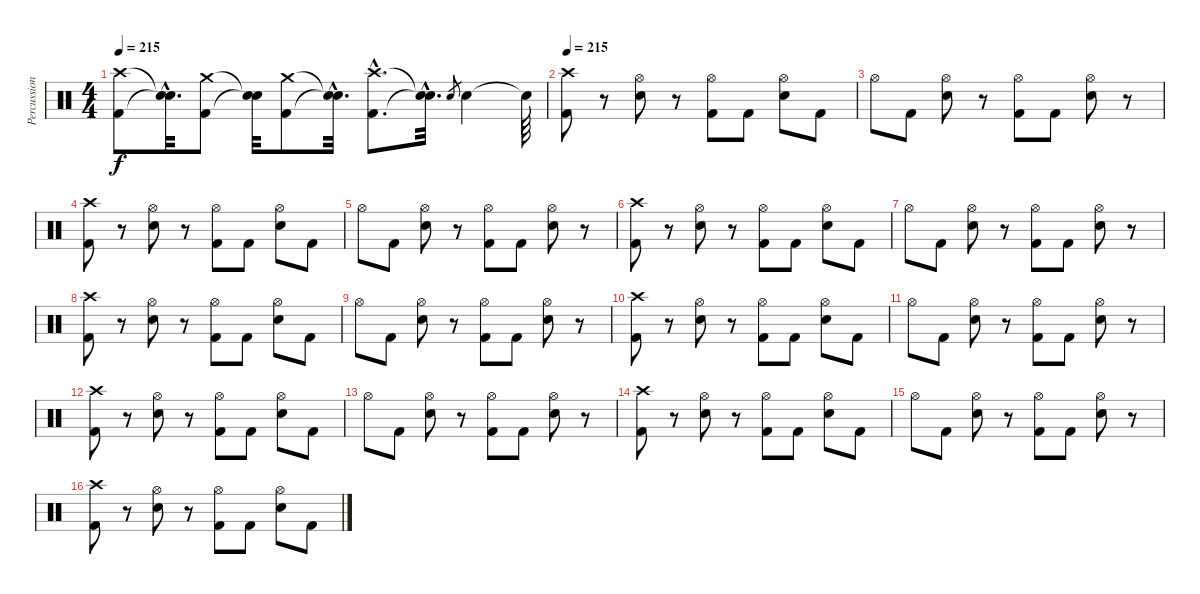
\track ("Percussion" "Percussion") {instrument percussion}
\staff {score}
\articulation defaults
\ts (4 4)
\tempo 215
\clef neutral
\ks c
("Kick (hit) 2" "Crash high (hit)").8{dy f} ("Snare (hit)"{hac t} "Snare (hit)"{hac t}).32{d} ("Kick (hit) 2" "Crash medium (hit)").8 ("Snare (hit)"{t} "Snare (hit)"{t}).32 ("Kick (hit) 2" "Crash medium (hit)").8 ("Snare (hit)"{hac t} "Snare (hit)"{hac t}).32{d} ("Kick (hit) 2"{hac} "Crash high (hit)"{hac}).8{d} ("Snare (hit)"{hac t} "Snare (hit)"{hac t}).32{d} "Snare (hit) 2".8{gr} "Snare (hit) 2".4 "Snare (hit)"{t}.64 |
\tempo 215
("Crash high (hit)" "Kick (hit) 2").8 r.8 ("Hi-Hat (open)" "Snare (hit) 2").8 r.8 ("Hi-Hat (open)" "Kick (hit) 2").8 "Kick (hit) 2".8 ("Hi-Hat (open)" "Snare (hit) 2").8 "Kick (hit) 2".8 |
"Hi-Hat (open)".8 "Kick (hit) 2".8 ("Hi-Hat (open)" "Snare (hit) 2").8 r.8 ("Hi-Hat (open)" "Kick (hit) 2").8 "Kick (hit) 2".8 ("Hi-Hat (open)" "Snare (hit) 2").8 r.8 |
("Crash high (hit)" "Kick (hit) 2").8 r.8 ("Hi-Hat (open)" "Snare (hit) 2").8 r.8 ("Hi-Hat (open)" "Kick (hit) 2").8 "Kick (hit) 2".8 ("Hi-Hat (open)" "Snare (hit) 2").8 "Kick (hit) 2".8 |
"Hi-Hat (open)".8 "Kick (hit) 2".8 ("Hi-Hat (open)" "Snare (hit) 2").8 r.8 ("Hi-Hat (open)" "Kick (hit) 2").8 "Kick (hit) 2".8 ("Hi-Hat (open)" "Snare (hit) 2").8 r.8 |
("Crash high (hit)" "Kick (hit) 2").8 r.8 ("Hi-Hat (open)" "Snare (hit) 2").8 r.8 ("Hi-Hat (open)" "Kick (hit) 2").8 "Kick (hit) 2".8 ("Hi-Hat (open)" "Snare (hit) 2").8 "Kick (hit) 2".8 |
"Hi-Hat (open)".8 "Kick (hit) 2".8 ("Hi-Hat (open)" "Snare (hit) 2").8 r.8 ("Hi-Hat (open)" "Kick (hit) 2").8 "Kick (hit) 2".8 ("Hi-Hat (open)" "Snare (hit) 2").8 r.8 |
("Crash high (hit)" "Kick (hit) 2").8 r.8 ("Hi-Hat (open)" "Snare (hit) 2").8 r.8 ("Hi-Hat (open)" "Kick (hit) 2").8 "Kick (hit) 2".8 ("Hi-Hat (open)" "Snare (hit) 2").8 "Kick (hit) 2".8 |
"Hi-Hat (open)".8 "Kick (hit) 2".8 ("Hi-Hat (open)" "Snare (hit) 2").8 r.8 ("Hi-Hat (open)" "Kick (hit) 2").8 "Kick (hit) 2".8 ("Hi-Hat (open)" "Snare (hit) 2").8 r.8 |
("Crash high (hit)" "Kick (hit) 2").8 r.8 ("Hi-Hat (open)" "Snare (hit) 2").8 r.8 ("Hi-Hat (open)" "Kick (hit) 2").8 "Kick (hit) 2".8 ("Hi-Hat (open)" "Snare (hit) 2").8 "Kick (hit) 2".8 |
"Hi-Hat (open)".8 "Kick (hit) 2".8 ("Hi-Hat (open)" "Snare (hit) 2").8 r.8 ("Hi-Hat (open)" "Kick (hit) 2").8 "Kick (hit) 2".8 ("Hi-Hat (open)" "Snare (hit) 2").8 r.8 |
("Crash high (hit)" "Kick (hit) 2").8 r.8 ("Hi-Hat (open)" "Snare (hit) 2").8 r.8 ("Hi-Hat (open)" "Kick (hit) 2").8 "Kick (hit) 2".8 ("Hi-Hat (open)" "Snare (hit) 2").8 "Kick (hit) 2".8 |
"Hi-Hat (open)".8 "Kick (hit) 2".8 ("Hi-Hat (open)" "Snare (hit) 2").8 r.8 ("Hi-Hat (open)" "Kick (hit) 2").8 "Kick (hit) 2".8 ("Hi-Hat (open)" "Snare (hit) 2").8 r.8 |
("Crash high (hit)" "Kick (hit) 2").8 r.8 ("Hi-Hat (open)" "Snare (hit) 2").8 r.8 ("Hi-Hat (open)" "Kick (hit) 2").8 "Kick (hit) 2".8 ("Hi-Hat (open)" "Snare (hit) 2").8 "Kick (hit) 2".8 |
"Hi-Hat (open)".8 "Kick (hit) 2".8 ("Hi-Hat (open)" "Snare (hit) 2").8 r.8 ("Hi-Hat (open)" "Kick (hit) 2").8 "Kick (hit) 2".8 ("Hi-Hat (open)" "Snare (hit) 2").8 r.8 |
("Crash high (hit)" "Kick (hit) 2").8 r.8 ("Hi-Hat (open)" "Snare (hit) 2").8 r.8 ("Hi-Hat (open)" "Kick (hit) 2").8 "Kick (hit) 2".8 ("Hi-Hat (open)" "Snare (hit) 2").8 "Kick (hit) 2".8
